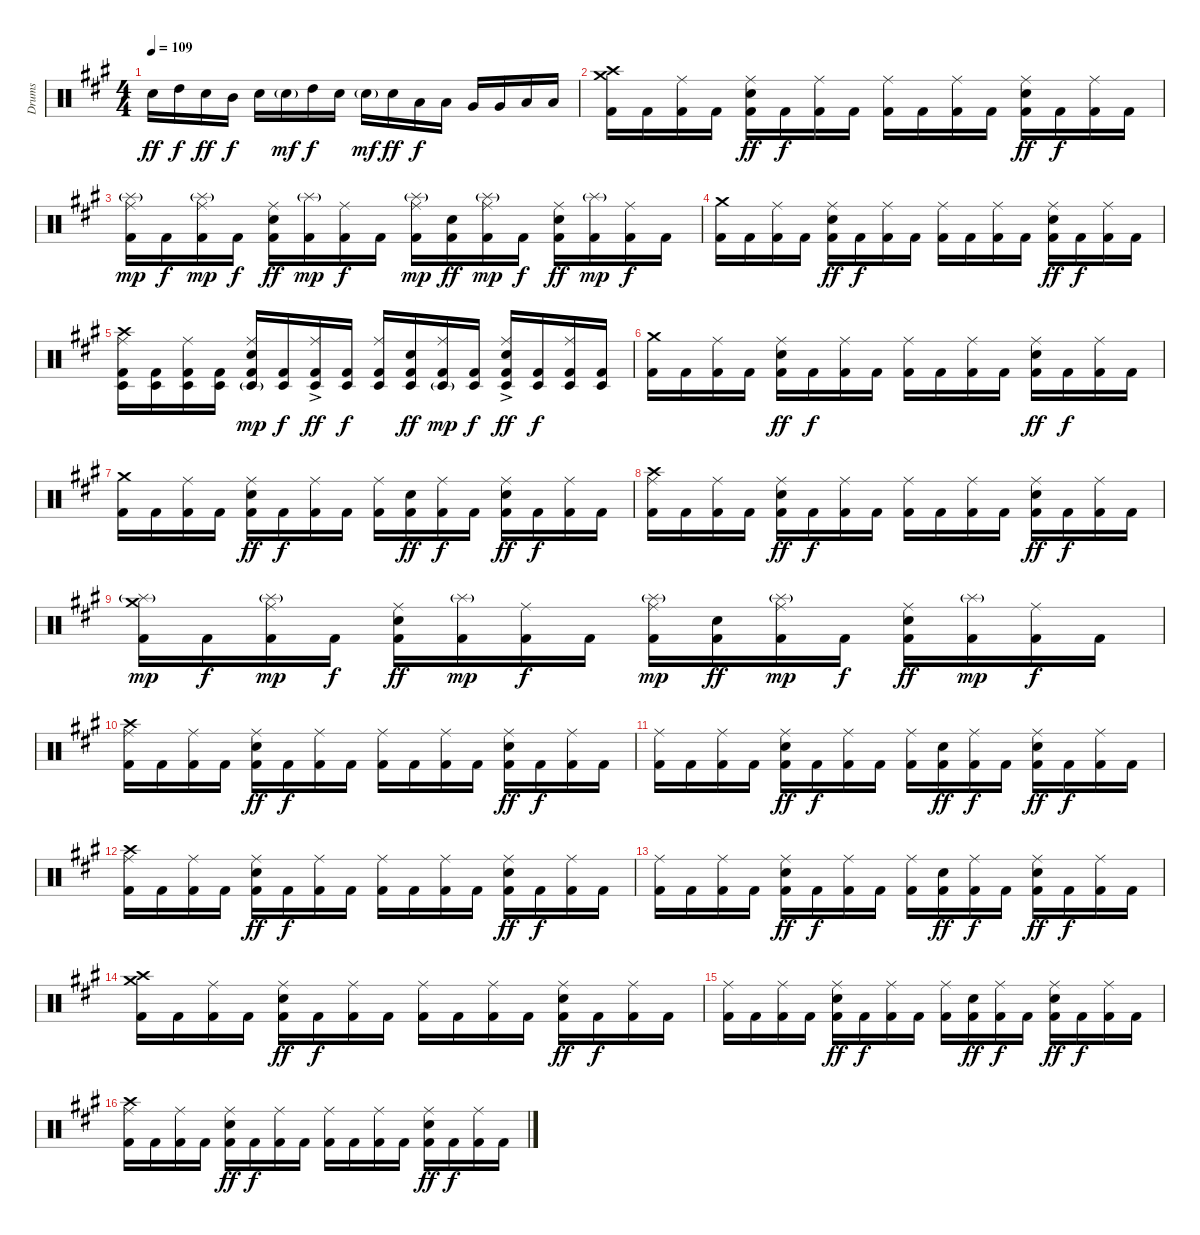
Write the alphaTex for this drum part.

\track ("Drums" "Drums") {instrument percussion}
\staff {score}
\articulation defaults
\ts (4 4)
\tempo 109
\clef neutral
\ks f#minor "Electric Snare (hit)".16{dy ff} "High Tom (hit)".16{dy f} "Electric Snare (hit)".16{dy ff} "Mid Tom (hit)".16{dy f} "Electric Snare (hit)".16 "Electric Snare (hit)"{g}.16{dy mf} "High Tom (hit)".16{dy f} "Electric Snare (hit)".16 "Electric Snare (hit)"{g}.16{dy mf} "Electric Snare (hit)".16{dy ff} "Low Tom (hit)".16{dy f} "Low Tom (hit)".16 "Very Low Tom (hit)".16 "Very Low Tom (hit)".16 "Low Floor Tom (hit)".16 "Low Floor Tom (hit)".16
|
("Crash medium (hit)" "Crash high (hit)" "Kick (hit) 2").16 "Kick (hit) 2".16 ("Ride (middle)" "Kick (hit) 2").16 "Kick (hit) 2".16 ("Ride (middle)" "Electric Snare (hit)" "Kick (hit) 2").16{dy ff} "Kick (hit) 2".16{dy f} ("Ride (middle)" "Kick (hit) 2").16 "Kick (hit) 2".16 ("Ride (middle)" "Kick (hit) 2").16 "Kick (hit) 2".16 ("Ride (middle)" "Kick (hit) 2").16 "Kick (hit) 2".16 ("Ride (middle)" "Electric Snare (hit)" "Kick (hit) 2").16{dy ff} "Kick (hit) 2".16{dy f} ("Ride (middle)" "Kick (hit) 2").16 "Kick (hit) 2".16 |
("Ride (middle)" "Splash (hit)"{g} "Kick (hit) 2").16{dy mp} "Kick (hit) 2".16{dy f} ("Ride (middle)" "Splash (hit)"{g} "Kick (hit) 2").16{dy mp} "Kick (hit) 2".16{dy f} ("Ride (middle)" "Electric Snare (hit)" "Kick (hit) 2").16{dy ff} ("Splash (hit)"{g} "Kick (hit) 2").16{dy mp} ("Ride (middle)" "Kick (hit) 2").16{dy f} "Kick (hit) 2".16 ("Ride (middle)" "Splash (hit)"{g} "Kick (hit) 2").16{dy mp} ("Electric Snare (hit)" "Kick (hit) 2").16{dy ff} ("Ride (middle)" "Splash (hit)"{g} "Kick (hit) 2").16{dy mp} "Kick (hit) 2".16{dy f} ("Ride (middle)" "Electric Snare (hit)" "Kick (hit) 2").16{dy ff} ("Splash (hit)"{g} "Kick (hit) 2").16{dy mp} ("Ride (middle)" "Kick (hit) 2").16{dy f} "Kick (hit) 2".16 |
("Crash medium (hit)" "Kick (hit) 2").16 "Kick (hit) 2".16 ("Ride (middle)" "Kick (hit) 2").16 "Kick (hit) 2".16 ("Ride (middle)" "Electric Snare (hit)" "Kick (hit) 2").16{dy ff} "Kick (hit) 2".16{dy f} ("Ride (middle)" "Kick (hit) 2").16 "Kick (hit) 2".16 ("Ride (middle)" "Kick (hit) 2").16 "Kick (hit) 2".16 ("Ride (middle)" "Kick (hit) 2").16 "Kick (hit) 2".16 ("Ride (middle)" "Electric Snare (hit)" "Kick (hit) 2").16{dy ff} "Kick (hit) 2".16{dy f} ("Ride (middle)" "Kick (hit) 2").16 "Kick (hit) 2".16 |
("Ride (middle)" "Crash high (hit)" "Timbale low (hit)" "Kick (hit) 2").16 ("Timbale low (hit)" "Kick (hit) 2").16 ("Ride (middle)" "Timbale low (hit)" "Kick (hit) 2").16 ("Timbale low (hit)" "Kick (hit) 2").16 ("Ride (middle)" "Electric Snare (hit)" "Timbale low (hit)"{g} "Kick (hit) 2").16{dy mp} ("Timbale low (hit)" "Kick (hit) 2").16{dy f} ("Ride (middle)" "Timbale low (hit)"{ac} "Kick (hit) 2").16{dy ff} ("Timbale low (hit)" "Kick (hit) 2").16{dy f} ("Ride (middle)" "Timbale low (hit)" "Kick (hit) 2").16 ("Electric Snare (hit)" "Timbale low (hit)" "Kick (hit) 2").16{dy ff} ("Ride (middle)" "Timbale low (hit)"{g} "Kick (hit) 2").16{dy mp} ("Timbale low (hit)" "Kick (hit) 2").16{dy f} ("Ride (middle)" "Electric Snare (hit)" "Timbale low (hit)"{ac} "Kick (hit) 2").16{dy ff} ("Timbale low (hit)" "Kick (hit) 2").16{dy f} ("Ride (middle)" "Timbale low (hit)" "Kick (hit) 2").16 ("Timbale low (hit)" "Kick (hit) 2").16 |
("Crash medium (hit)" "Kick (hit) 2").16 "Kick (hit) 2".16 ("Ride (middle)" "Kick (hit) 2").16 "Kick (hit) 2".16 ("Ride (middle)" "Electric Snare (hit)" "Kick (hit) 2").16{dy ff} "Kick (hit) 2".16{dy f} ("Ride (middle)" "Kick (hit) 2").16 "Kick (hit) 2".16 ("Ride (middle)" "Kick (hit) 2").16 "Kick (hit) 2".16 ("Ride (middle)" "Kick (hit) 2").16 "Kick (hit) 2".16 ("Ride (middle)" "Electric Snare (hit)" "Kick (hit) 2").16{dy ff} "Kick (hit) 2".16{dy f} ("Ride (middle)" "Kick (hit) 2").16 "Kick (hit) 2".16 |
("Crash medium (hit)" "Kick (hit) 2").16 "Kick (hit) 2".16 ("Ride (middle)" "Kick (hit) 2").16 "Kick (hit) 2".16 ("Ride (middle)" "Electric Snare (hit)" "Kick (hit) 2").16{dy ff} "Kick (hit) 2".16{dy f} ("Ride (middle)" "Kick (hit) 2").16 "Kick (hit) 2".16 ("Ride (middle)" "Kick (hit) 2").16 ("Electric Snare (hit)" "Kick (hit) 2").16{dy ff} ("Ride (middle)" "Kick (hit) 2").16{dy f} "Kick (hit) 2".16 ("Ride (middle)" "Electric Snare (hit)" "Kick (hit) 2").16{dy ff} "Kick (hit) 2".16{dy f} ("Ride (middle)" "Kick (hit) 2").16 "Kick (hit) 2".16 |
("Ride (middle)" "Crash high (hit)" "Kick (hit) 2").16 "Kick (hit) 2".16 ("Ride (middle)" "Kick (hit) 2").16 "Kick (hit) 2".16 ("Ride (middle)" "Electric Snare (hit)" "Kick (hit) 2").16{dy ff} "Kick (hit) 2".16{dy f} ("Ride (middle)" "Kick (hit) 2").16 "Kick (hit) 2".16 ("Ride (middle)" "Kick (hit) 2").16 "Kick (hit) 2".16 ("Ride (middle)" "Kick (hit) 2").16 "Kick (hit) 2".16 ("Ride (middle)" "Electric Snare (hit)" "Kick (hit) 2").16{dy ff} "Kick (hit) 2".16{dy f} ("Ride (middle)" "Kick (hit) 2").16 "Kick (hit) 2".16 |
("Crash medium (hit)" "Splash (hit)"{g} "Kick (hit) 2").16{dy mp} "Kick (hit) 2".16{dy f} ("Ride (middle)" "Splash (hit)"{g} "Kick (hit) 2").16{dy mp} "Kick (hit) 2".16{dy f} ("Ride (middle)" "Electric Snare (hit)" "Kick (hit) 2").16{dy ff} ("Splash (hit)"{g} "Kick (hit) 2").16{dy mp} ("Ride (middle)" "Kick (hit) 2").16{dy f} "Kick (hit) 2".16 ("Ride (middle)" "Splash (hit)"{g} "Kick (hit) 2").16{dy mp} ("Electric Snare (hit)" "Kick (hit) 2").16{dy ff} ("Ride (middle)" "Splash (hit)"{g} "Kick (hit) 2").16{dy mp} "Kick (hit) 2".16{dy f} ("Ride (middle)" "Electric Snare (hit)" "Kick (hit) 2").16{dy ff} ("Splash (hit)"{g} "Kick (hit) 2").16{dy mp} ("Ride (middle)" "Kick (hit) 2").16{dy f} "Kick (hit) 2".16 |
("Ride (middle)" "Crash high (hit)" "Kick (hit) 2").16 "Kick (hit) 2".16 ("Ride (middle)" "Kick (hit) 2").16 "Kick (hit) 2".16 ("Ride (middle)" "Electric Snare (hit)" "Kick (hit) 2").16{dy ff} "Kick (hit) 2".16{dy f} ("Ride (middle)" "Kick (hit) 2").16 "Kick (hit) 2".16 ("Ride (middle)" "Kick (hit) 2").16 "Kick (hit) 2".16 ("Ride (middle)" "Kick (hit) 2").16 "Kick (hit) 2".16 ("Ride (middle)" "Electric Snare (hit)" "Kick (hit) 2").16{dy ff} "Kick (hit) 2".16{dy f} ("Ride (middle)" "Kick (hit) 2").16 "Kick (hit) 2".16 |
("Ride (middle)" "Kick (hit) 2").16 "Kick (hit) 2".16 ("Ride (middle)" "Kick (hit) 2").16 "Kick (hit) 2".16 ("Ride (middle)" "Electric Snare (hit)" "Kick (hit) 2").16{dy ff} "Kick (hit) 2".16{dy f} ("Ride (middle)" "Kick (hit) 2").16 "Kick (hit) 2".16 ("Ride (middle)" "Kick (hit) 2").16 ("Electric Snare (hit)" "Kick (hit) 2").16{dy ff} ("Ride (middle)" "Kick (hit) 2").16{dy f} "Kick (hit) 2".16 ("Ride (middle)" "Electric Snare (hit)" "Kick (hit) 2").16{dy ff} "Kick (hit) 2".16{dy f} ("Ride (middle)" "Kick (hit) 2").16 "Kick (hit) 2".16 |
("Ride (middle)" "Crash high (hit)" "Kick (hit) 2").16 "Kick (hit) 2".16 ("Ride (middle)" "Kick (hit) 2").16 "Kick (hit) 2".16 ("Ride (middle)" "Electric Snare (hit)" "Kick (hit) 2").16{dy ff} "Kick (hit) 2".16{dy f} ("Ride (middle)" "Kick (hit) 2").16 "Kick (hit) 2".16 ("Ride (middle)" "Kick (hit) 2").16 "Kick (hit) 2".16 ("Ride (middle)" "Kick (hit) 2").16 "Kick (hit) 2".16 ("Ride (middle)" "Electric Snare (hit)" "Kick (hit) 2").16{dy ff} "Kick (hit) 2".16{dy f} ("Ride (middle)" "Kick (hit) 2").16 "Kick (hit) 2".16 |
("Ride (middle)" "Kick (hit) 2").16 "Kick (hit) 2".16 ("Ride (middle)" "Kick (hit) 2").16 "Kick (hit) 2".16 ("Ride (middle)" "Electric Snare (hit)" "Kick (hit) 2").16{dy ff} "Kick (hit) 2".16{dy f} ("Ride (middle)" "Kick (hit) 2").16 "Kick (hit) 2".16 ("Ride (middle)" "Kick (hit) 2").16 ("Electric Snare (hit)" "Kick (hit) 2").16{dy ff} ("Ride (middle)" "Kick (hit) 2").16{dy f} "Kick (hit) 2".16 ("Ride (middle)" "Electric Snare (hit)" "Kick (hit) 2").16{dy ff} "Kick (hit) 2".16{dy f} ("Ride (middle)" "Kick (hit) 2").16 "Kick (hit) 2".16 |
("Crash medium (hit)" "Crash high (hit)" "Kick (hit) 2").16 "Kick (hit) 2".16 ("Ride (middle)" "Kick (hit) 2").16 "Kick (hit) 2".16 ("Ride (middle)" "Electric Snare (hit)" "Kick (hit) 2").16{dy ff} "Kick (hit) 2".16{dy f} ("Ride (middle)" "Kick (hit) 2").16 "Kick (hit) 2".16 ("Ride (middle)" "Kick (hit) 2").16 "Kick (hit) 2".16 ("Ride (middle)" "Kick (hit) 2").16 "Kick (hit) 2".16 ("Ride (middle)" "Electric Snare (hit)" "Kick (hit) 2").16{dy ff} "Kick (hit) 2".16{dy f} ("Ride (middle)" "Kick (hit) 2").16 "Kick (hit) 2".16 |
("Ride (middle)" "Kick (hit) 2").16 "Kick (hit) 2".16 ("Ride (middle)" "Kick (hit) 2").16 "Kick (hit) 2".16 ("Ride (middle)" "Electric Snare (hit)" "Kick (hit) 2").16{dy ff} "Kick (hit) 2".16{dy f} ("Ride (middle)" "Kick (hit) 2").16 "Kick (hit) 2".16 ("Ride (middle)" "Kick (hit) 2").16 ("Electric Snare (hit)" "Kick (hit) 2").16{dy ff} ("Ride (middle)" "Kick (hit) 2").16{dy f} "Kick (hit) 2".16 ("Ride (middle)" "Electric Snare (hit)" "Kick (hit) 2").16{dy ff} "Kick (hit) 2".16{dy f} ("Ride (middle)" "Kick (hit) 2").16 "Kick (hit) 2".16 |
("Ride (middle)" "Crash high (hit)" "Kick (hit) 2").16 "Kick (hit) 2".16 ("Ride (middle)" "Kick (hit) 2").16 "Kick (hit) 2".16 ("Ride (middle)" "Electric Snare (hit)" "Kick (hit) 2").16{dy ff} "Kick (hit) 2".16{dy f} ("Ride (middle)" "Kick (hit) 2").16 "Kick (hit) 2".16 ("Ride (middle)" "Kick (hit) 2").16 "Kick (hit) 2".16 ("Ride (middle)" "Kick (hit) 2").16 "Kick (hit) 2".16 ("Ride (middle)" "Electric Snare (hit)" "Kick (hit) 2").16{dy ff} "Kick (hit) 2".16{dy f} ("Ride (middle)" "Kick (hit) 2").16 "Kick (hit) 2".16
